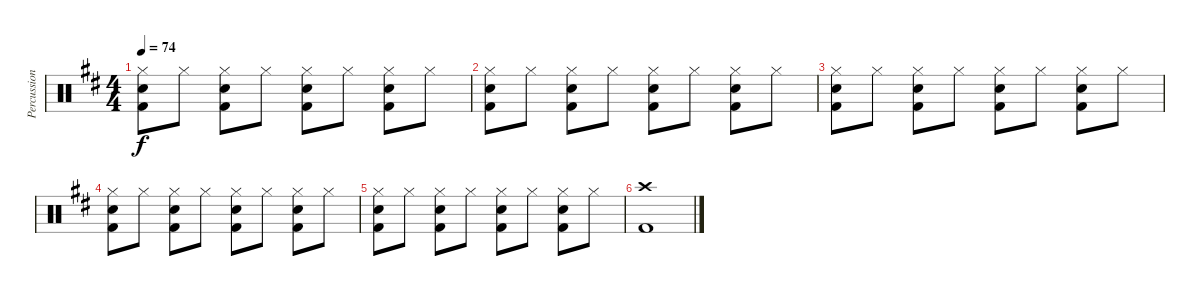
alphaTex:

\track ("Percussion" "Percussion") {instrument percussion}
\staff {score}
\articulation defaults
\ts (4 4)
\tempo 74
\clef neutral
\ks d
("Hi-Hat (closed)" "Snare (hit) 2" "Kick (hit) 2").8{dy f} "Hi-Hat (closed)".8 ("Hi-Hat (closed)" "Snare (hit) 2" "Kick (hit) 2").8 "Hi-Hat (closed)".8 ("Hi-Hat (closed)" "Snare (hit) 2" "Kick (hit) 2").8 "Hi-Hat (closed)".8 ("Hi-Hat (closed)" "Snare (hit) 2" "Kick (hit) 2").8 "Hi-Hat (closed)".8 |
("Hi-Hat (closed)" "Snare (hit) 2" "Kick (hit) 2").8 "Hi-Hat (closed)".8 ("Hi-Hat (closed)" "Snare (hit) 2" "Kick (hit) 2").8 "Hi-Hat (closed)".8 ("Hi-Hat (closed)" "Snare (hit) 2" "Kick (hit) 2").8 "Hi-Hat (closed)".8 ("Hi-Hat (closed)" "Snare (hit) 2" "Kick (hit) 2").8 "Hi-Hat (closed)".8 |
("Hi-Hat (closed)" "Snare (hit) 2" "Kick (hit) 2").8 "Hi-Hat (closed)".8 ("Hi-Hat (closed)" "Snare (hit) 2" "Kick (hit) 2").8 "Hi-Hat (closed)".8 ("Hi-Hat (closed)" "Snare (hit) 2" "Kick (hit) 2").8 "Hi-Hat (closed)".8 ("Hi-Hat (closed)" "Snare (hit) 2" "Kick (hit) 2").8 "Hi-Hat (closed)".8 |
("Hi-Hat (closed)" "Snare (hit) 2" "Kick (hit) 2").8 "Hi-Hat (closed)".8 ("Hi-Hat (closed)" "Snare (hit) 2" "Kick (hit) 2").8 "Hi-Hat (closed)".8 ("Hi-Hat (closed)" "Snare (hit) 2" "Kick (hit) 2").8 "Hi-Hat (closed)".8 ("Hi-Hat (closed)" "Snare (hit) 2" "Kick (hit) 2").8 "Hi-Hat (closed)".8 |
("Hi-Hat (closed)" "Snare (hit) 2" "Kick (hit) 2").8 "Hi-Hat (closed)".8 ("Hi-Hat (closed)" "Snare (hit) 2" "Kick (hit) 2").8 "Hi-Hat (closed)".8 ("Hi-Hat (closed)" "Snare (hit) 2" "Kick (hit) 2").8 "Hi-Hat (closed)".8 ("Hi-Hat (closed)" "Snare (hit) 2" "Kick (hit) 2").8 "Hi-Hat (closed)".8 |
("Crash high (hit)" "Kick (hit) 2").1
